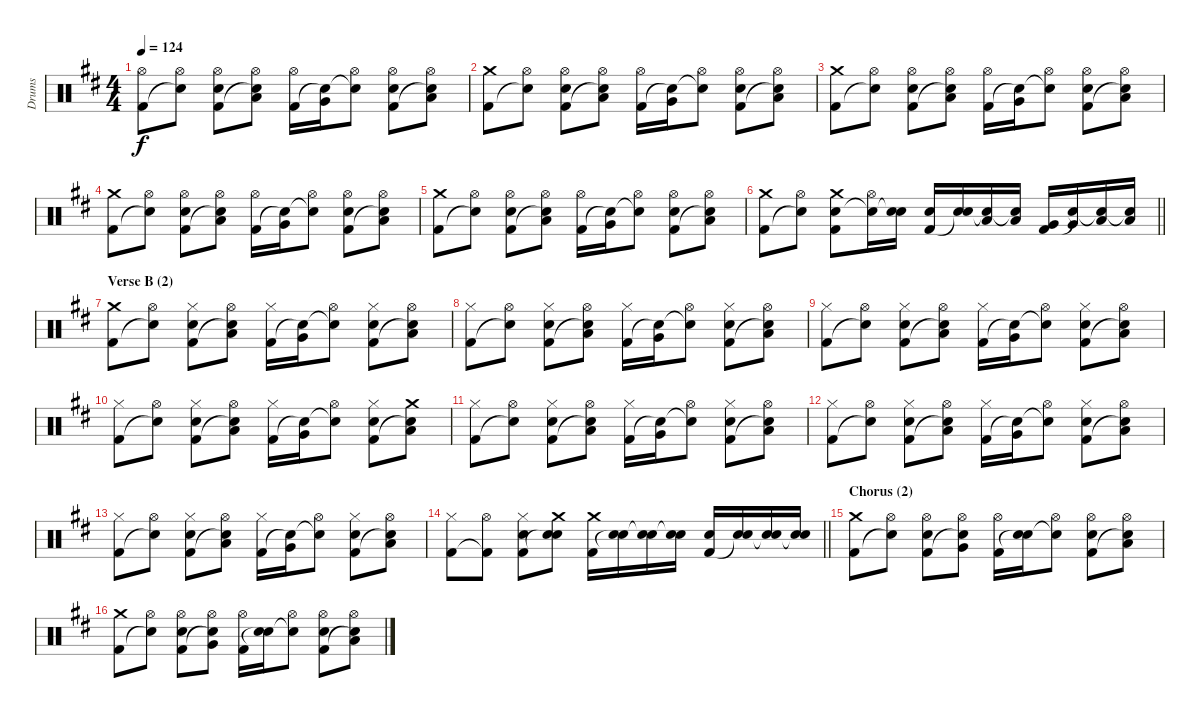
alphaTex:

\track ("Drums" "Drums") {instrument percussion}
\staff {score}
\articulation defaults
\ts (4 4)
\tempo 124
\clef neutral
\ks d
("Hi-Hat (open)" "Kick (hit) 2").8{dy f} ("Hi-Hat (open)" "Snare (hit)"{t}).8 ("Hi-Hat (open)" "Electric Snare (hit)" "Kick (hit) 2").8 ("Hi-Hat (open)" "Low Tom (hit)" "Snare (hit)"{t}).8 ("Hi-Hat (open)" "Kick (hit) 2").16 ("Very Low Tom (hit)" "Snare (hit)"{t}).16 ("Hi-Hat (open)" "Snare (hit)"{t}).8 ("Hi-Hat (open)" "Electric Snare (hit)" "Kick (hit) 2").8 ("Hi-Hat (open)" "Low Floor Tom (hit)" "Snare (hit)"{t}).8 |
("Crash medium (hit)" "Kick (hit) 2").8 ("Hi-Hat (open)" "Snare (hit)"{t}).8 ("Hi-Hat (open)" "Electric Snare (hit)" "Kick (hit) 2").8 ("Hi-Hat (open)" "Low Tom (hit)" "Snare (hit)"{t}).8 ("Hi-Hat (open)" "Kick (hit) 2").16 ("Very Low Tom (hit)" "Snare (hit)"{t}).16 ("Hi-Hat (open)" "Snare (hit)"{t}).8 ("Hi-Hat (open)" "Electric Snare (hit)" "Kick (hit) 2").8 ("Hi-Hat (open)" "Low Floor Tom (hit)" "Snare (hit)"{t}).8 |
("Crash medium (hit)" "Kick (hit) 2").8 ("Hi-Hat (open)" "Snare (hit)"{t}).8 ("Hi-Hat (open)" "Electric Snare (hit)" "Kick (hit) 2").8 ("Hi-Hat (open)" "Low Tom (hit)" "Snare (hit)"{t}).8 ("Hi-Hat (open)" "Kick (hit) 2").16 ("Very Low Tom (hit)" "Snare (hit)"{t}).16 ("Hi-Hat (open)" "Snare (hit)"{t}).8 ("Hi-Hat (open)" "Electric Snare (hit)" "Kick (hit) 2").8 ("Hi-Hat (open)" "Low Floor Tom (hit)" "Snare (hit)"{t}).8 |
("Crash medium (hit)" "Kick (hit) 2").8 ("Hi-Hat (open)" "Snare (hit)"{t}).8 ("Hi-Hat (open)" "Electric Snare (hit)" "Kick (hit) 2").8 ("Hi-Hat (open)" "Low Tom (hit)" "Snare (hit)"{t}).8 ("Hi-Hat (open)" "Kick (hit) 2").16 ("Very Low Tom (hit)" "Snare (hit)"{t}).16 ("Hi-Hat (open)" "Snare (hit)"{t}).8 ("Hi-Hat (open)" "Electric Snare (hit)" "Kick (hit) 2").8 ("Hi-Hat (open)" "Low Floor Tom (hit)" "Snare (hit)"{t}).8 |
("Crash medium (hit)" "Kick (hit) 2").8 ("Hi-Hat (open)" "Snare (hit)"{t}).8 ("Hi-Hat (open)" "Electric Snare (hit)" "Kick (hit) 2").8 ("Hi-Hat (open)" "Low Tom (hit)" "Snare (hit)"{t}).8 ("Hi-Hat (open)" "Kick (hit) 2").16 ("Very Low Tom (hit)" "Snare (hit)"{t}).16 ("Hi-Hat (open)" "Snare (hit)"{t}).8 ("Hi-Hat (open)" "Electric Snare (hit)" "Kick (hit) 2").8 ("Hi-Hat (open)" "Low Floor Tom (hit)" "Snare (hit)"{t}).8 |
\barLineRight lightlight
("Crash medium (hit)" "Kick (hit) 2").8 ("Hi-Hat (open)" "Snare (hit)"{t}).8 ("Crash medium (hit)" "Electric Snare (hit)" "Kick (hit) 2").8 ("Hi-Hat (open)" "Snare (hit)"{t}).16 ("Electric Snare (hit)" "Snare (hit)"{t}).16 ("Electric Snare (hit)" "Kick (hit) 2").16 ("Electric Snare (hit)" "Snare (hit)"{t}).16 ("Low Tom (hit)" "Snare (hit)"{t}).16 ("Low Tom (hit)" "Snare (hit)"{t}).16 ("Very Low Tom (hit)" "Kick (hit) 2").16 ("Very Low Tom (hit)" "Snare (hit)"{t}).16 ("Low Floor Tom (hit)" "Snare (hit)"{t}).16 ("Low Floor Tom (hit)" "Snare (hit)"{t}).16 |
\section ("" "Verse B (2)")
("Crash medium (hit)" "Kick (hit) 2").8 ("Hi-Hat (open)" "Snare (hit)"{t}).8 ("Hi-Hat (closed)" "Electric Snare (hit)" "Kick (hit) 2").8 ("Hi-Hat (open)" "Low Tom (hit)" "Snare (hit)"{t}).8 ("Hi-Hat (closed)" "Kick (hit) 2").16 ("Very Low Tom (hit)" "Snare (hit)"{t}).16 ("Hi-Hat (open)" "Snare (hit)"{t}).8 ("Hi-Hat (closed)" "Electric Snare (hit)" "Kick (hit) 2").8 ("Hi-Hat (open)" "Low Floor Tom (hit)" "Snare (hit)"{t}).8 |
("Hi-Hat (closed)" "Kick (hit) 2").8 ("Hi-Hat (open)" "Snare (hit)"{t}).8 ("Hi-Hat (closed)" "Electric Snare (hit)" "Kick (hit) 2").8 ("Hi-Hat (open)" "Low Tom (hit)" "Snare (hit)"{t}).8 ("Hi-Hat (closed)" "Kick (hit) 2").16 ("Very Low Tom (hit)" "Snare (hit)"{t}).16 ("Hi-Hat (open)" "Snare (hit)"{t}).8 ("Hi-Hat (closed)" "Electric Snare (hit)" "Kick (hit) 2").8 ("Hi-Hat (open)" "Low Floor Tom (hit)" "Snare (hit)"{t}).8 |
("Hi-Hat (closed)" "Kick (hit) 2").8 ("Hi-Hat (open)" "Snare (hit)"{t}).8 ("Hi-Hat (closed)" "Electric Snare (hit)" "Kick (hit) 2").8 ("Hi-Hat (open)" "Low Tom (hit)" "Snare (hit)"{t}).8 ("Hi-Hat (closed)" "Kick (hit) 2").16 ("Very Low Tom (hit)" "Snare (hit)"{t}).16 ("Hi-Hat (open)" "Snare (hit)"{t}).8 ("Hi-Hat (closed)" "Electric Snare (hit)" "Kick (hit) 2").8 ("Hi-Hat (open)" "Low Floor Tom (hit)" "Snare (hit)"{t}).8 |
("Hi-Hat (closed)" "Kick (hit) 2").8 ("Hi-Hat (open)" "Snare (hit)"{t}).8 ("Hi-Hat (closed)" "Electric Snare (hit)" "Kick (hit) 2").8 ("Hi-Hat (open)" "Low Tom (hit)" "Snare (hit)"{t}).8 ("Hi-Hat (closed)" "Kick (hit) 2").16 ("Very Low Tom (hit)" "Snare (hit)"{t}).16 ("Hi-Hat (open)" "Snare (hit)"{t}).8 ("Hi-Hat (closed)" "Electric Snare (hit)" "Kick (hit) 2").8 ("Crash medium (hit)" "Low Floor Tom (hit)" "Snare (hit)"{t}).8 |
("Hi-Hat (closed)" "Kick (hit) 2").8 ("Hi-Hat (open)" "Snare (hit)"{t}).8 ("Hi-Hat (closed)" "Electric Snare (hit)" "Kick (hit) 2").8 ("Hi-Hat (open)" "Low Tom (hit)" "Snare (hit)"{t}).8 ("Hi-Hat (closed)" "Kick (hit) 2").16 ("Very Low Tom (hit)" "Snare (hit)"{t}).16 ("Hi-Hat (open)" "Snare (hit)"{t}).8 ("Hi-Hat (closed)" "Electric Snare (hit)" "Kick (hit) 2").8 ("Hi-Hat (open)" "Low Floor Tom (hit)" "Snare (hit)"{t}).8 |
("Hi-Hat (closed)" "Kick (hit) 2").8 ("Hi-Hat (open)" "Snare (hit)"{t}).8 ("Hi-Hat (closed)" "Electric Snare (hit)" "Kick (hit) 2").8 ("Hi-Hat (open)" "Low Tom (hit)" "Snare (hit)"{t}).8 ("Hi-Hat (closed)" "Kick (hit) 2").16 ("Very Low Tom (hit)" "Snare (hit)"{t}).16 ("Hi-Hat (open)" "Snare (hit)"{t}).8 ("Hi-Hat (closed)" "Electric Snare (hit)" "Kick (hit) 2").8 ("Hi-Hat (open)" "Low Floor Tom (hit)" "Snare (hit)"{t}).8 |
("Hi-Hat (closed)" "Kick (hit) 2").8 ("Hi-Hat (open)" "Snare (hit)"{t}).8 ("Hi-Hat (closed)" "Electric Snare (hit)" "Kick (hit) 2").8 ("Hi-Hat (open)" "Low Tom (hit)" "Snare (hit)"{t}).8 ("Hi-Hat (closed)" "Kick (hit) 2").16 ("Very Low Tom (hit)" "Snare (hit)"{t}).16 ("Hi-Hat (open)" "Snare (hit)"{t}).8 ("Hi-Hat (closed)" "Electric Snare (hit)" "Kick (hit) 2").8 ("Hi-Hat (open)" "Low Floor Tom (hit)" "Snare (hit)"{t}).8 |
\barLineRight lightlight
("Hi-Hat (closed)" "Kick (hit) 2").8 ("Hi-Hat (open)" "Kick (hit) 2"{t}).8 ("Hi-Hat (closed)" "Electric Snare (hit)" "Kick (hit) 2").8 ("Crash medium (hit)" "Electric Snare (hit)" "Snare (hit)"{t}).8 ("Crash medium (hit)" "Kick (hit) 2").16 ("Electric Snare (hit)" "Snare (hit)"{t}).16 ("Electric Snare (hit)" "Snare (hit)"{t}).16 ("Electric Snare (hit)" "Snare (hit)"{t}).16 ("Electric Snare (hit)" "Kick (hit) 2").16 ("Electric Snare (hit)" "Snare (hit)"{t}).16 ("Electric Snare (hit)" "Snare (hit)"{t}).16 ("Electric Snare (hit)" "Snare (hit)"{t}).16 |
\section ("" "Chorus (2)")
("Crash medium (hit)" "Kick (hit) 2").8 ("Hi-Hat (open)" "Snare (hit)"{t}).8 ("Hi-Hat (open)" "Electric Snare (hit)" "Kick (hit) 2").8 ("Hi-Hat (open)" "Very Low Tom (hit)" "Snare (hit)"{t}).8 ("Hi-Hat (open)" "Kick (hit) 2").16 ("Electric Snare (hit)" "Snare (hit)"{t}).16 ("Hi-Hat (open)" "Snare (hit)"{t}).8 ("Hi-Hat (open)" "Electric Snare (hit)" "Kick (hit) 2").8 ("Hi-Hat (open)" "Low Floor Tom (hit)" "Snare (hit)"{t}).8 |
("Crash medium (hit)" "Kick (hit) 2").8 ("Hi-Hat (open)" "Snare (hit)"{t}).8 ("Hi-Hat (open)" "Electric Snare (hit)" "Kick (hit) 2").8 ("Hi-Hat (open)" "Very Low Tom (hit)" "Snare (hit)"{t}).8 ("Hi-Hat (open)" "Kick (hit) 2").16 ("Electric Snare (hit)" "Snare (hit)"{t}).16 ("Hi-Hat (open)" "Snare (hit)"{t}).8 ("Hi-Hat (open)" "Electric Snare (hit)" "Kick (hit) 2").8 ("Hi-Hat (open)" "Low Floor Tom (hit)" "Snare (hit)"{t}).8
